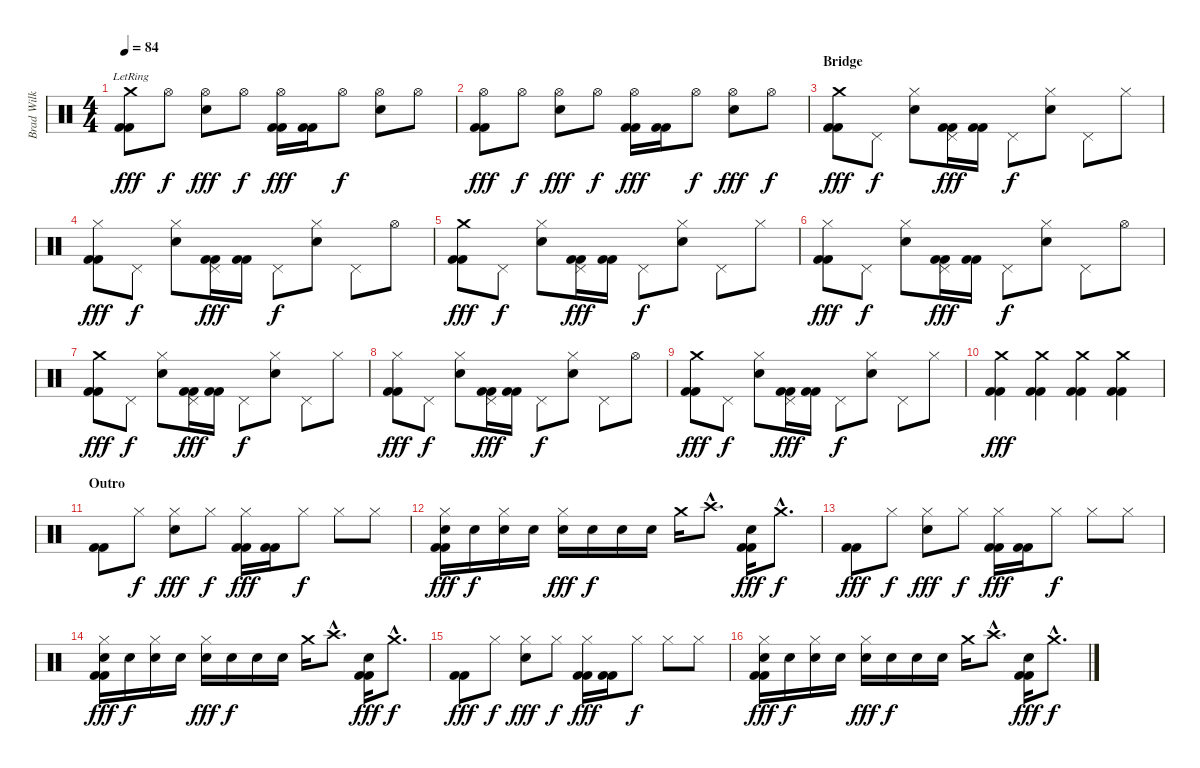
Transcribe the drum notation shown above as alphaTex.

\track ("Brad Wilk" "Brad Wilk") {instrument percussion}
\staff {score}
\articulation defaults
\ts (4 4)
\tempo 84
\clef neutral
\ks c
("Crash medium (hit)"{lr} "Kick (hit) 2" "Kick (hit) 2").8{dy fff} "Hi-Hat (open)".8{dy f} ("Hi-Hat (open)" "Snare (hit) 2").8{dy fff} "Hi-Hat (open)".8{dy f} ("Hi-Hat (open)" "Kick (hit) 2" "Kick (hit) 2").16{dy fff} ("Kick (hit) 2" "Kick (hit) 2").16 "Hi-Hat (open)".8{dy f} ("Hi-Hat (open)" "Snare (hit) 2").8 "Hi-Hat (open)".8 |
("Hi-Hat (open)" "Kick (hit) 2" "Kick (hit) 2").8{dy fff} "Hi-Hat (open)".8{dy f} ("Hi-Hat (open)" "Snare (hit) 2").8{dy fff} "Hi-Hat (open)".8{dy f} ("Hi-Hat (open)" "Kick (hit) 2" "Kick (hit) 2").16{dy fff} ("Kick (hit) 2" "Kick (hit) 2").16 "Hi-Hat (open)".8{dy f} ("Hi-Hat (open)" "Snare (hit) 2").8{dy fff} "Hi-Hat (open)".8{dy f} |
\section ("" "Bridge")
("Crash medium (hit)" "Kick (hit) 2" "Kick (hit) 2").8{dy fff} "Pedal Hi-Hat (hit)".8{dy f} ("Hi-Hat (closed)" "Snare (hit) 2").8 ("Pedal Hi-Hat (hit)" "Kick (hit) 2" "Kick (hit) 2").16{dy fff} ("Kick (hit) 2" "Kick (hit) 2").16 "Pedal Hi-Hat (hit)".8{dy f} ("Hi-Hat (closed)" "Snare (hit) 2").8 "Pedal Hi-Hat (hit)".8 "Hi-Hat (closed)".8 |
("Hi-Hat (closed)" "Kick (hit) 2" "Kick (hit) 2").8{dy fff} "Pedal Hi-Hat (hit)".8{dy f} ("Hi-Hat (closed)" "Snare (hit) 2").8 ("Pedal Hi-Hat (hit)" "Kick (hit) 2" "Kick (hit) 2").16{dy fff} ("Kick (hit) 2" "Kick (hit) 2").16 "Pedal Hi-Hat (hit)".8{dy f} ("Hi-Hat (closed)" "Snare (hit) 2").8 "Pedal Hi-Hat (hit)".8 "Hi-Hat (open)".8 |
("Crash medium (hit)" "Kick (hit) 2" "Kick (hit) 2").8{dy fff} "Pedal Hi-Hat (hit)".8{dy f} ("Hi-Hat (closed)" "Snare (hit) 2").8 ("Pedal Hi-Hat (hit)" "Kick (hit) 2" "Kick (hit) 2").16{dy fff} ("Kick (hit) 2" "Kick (hit) 2").16 "Pedal Hi-Hat (hit)".8{dy f} ("Hi-Hat (closed)" "Snare (hit) 2").8 "Pedal Hi-Hat (hit)".8 "Hi-Hat (closed)".8 |
("Hi-Hat (closed)" "Kick (hit) 2" "Kick (hit) 2").8{dy fff} "Pedal Hi-Hat (hit)".8{dy f} ("Hi-Hat (closed)" "Snare (hit) 2").8 ("Pedal Hi-Hat (hit)" "Kick (hit) 2" "Kick (hit) 2").16{dy fff} ("Kick (hit) 2" "Kick (hit) 2").16 "Pedal Hi-Hat (hit)".8{dy f} ("Hi-Hat (closed)" "Snare (hit) 2").8 "Pedal Hi-Hat (hit)".8 "Hi-Hat (open)".8 |
("Crash medium (hit)" "Kick (hit) 2" "Kick (hit) 2").8{dy fff} "Pedal Hi-Hat (hit)".8{dy f} ("Hi-Hat (closed)" "Snare (hit) 2").8 ("Pedal Hi-Hat (hit)" "Kick (hit) 2" "Kick (hit) 2").16{dy fff} ("Kick (hit) 2" "Kick (hit) 2").16 "Pedal Hi-Hat (hit)".8{dy f} ("Hi-Hat (closed)" "Snare (hit) 2").8 "Pedal Hi-Hat (hit)".8 "Hi-Hat (closed)".8 |
("Hi-Hat (closed)" "Kick (hit) 2" "Kick (hit) 2").8{dy fff} "Pedal Hi-Hat (hit)".8{dy f} ("Hi-Hat (closed)" "Snare (hit) 2").8 ("Pedal Hi-Hat (hit)" "Kick (hit) 2" "Kick (hit) 2").16{dy fff} ("Kick (hit) 2" "Kick (hit) 2").16 "Pedal Hi-Hat (hit)".8{dy f} ("Hi-Hat (closed)" "Snare (hit) 2").8 "Pedal Hi-Hat (hit)".8 "Hi-Hat (open)".8 |
("Crash medium (hit)" "Kick (hit) 2" "Kick (hit) 2").8{dy fff} "Pedal Hi-Hat (hit)".8{dy f} ("Hi-Hat (closed)" "Snare (hit) 2").8 ("Pedal Hi-Hat (hit)" "Kick (hit) 2" "Kick (hit) 2").16{dy fff} ("Kick (hit) 2" "Kick (hit) 2").16 "Pedal Hi-Hat (hit)".8{dy f} ("Hi-Hat (closed)" "Snare (hit) 2").8 "Pedal Hi-Hat (hit)".8 "Hi-Hat (closed)".8 |
("Crash medium (hit)" "Kick (hit) 2" "Kick (hit) 2").4{dy fff} ("Crash medium (hit)" "Kick (hit) 2" "Kick (hit) 2").4 ("Crash medium (hit)" "Kick (hit) 2" "Kick (hit) 2").4 ("Crash medium (hit)" "Kick (hit) 2" "Kick (hit) 2").4 |
\section ("" "Outro")
("Kick (hit) 2" "Kick (hit) 2").8 "Hi-Hat (closed)".8{dy f} ("Hi-Hat (closed)" "Snare (hit) 2").8{dy fff} "Hi-Hat (closed)".8{dy f} ("Hi-Hat (closed)" "Kick (hit) 2" "Kick (hit) 2").16{dy fff} ("Kick (hit) 2" "Kick (hit) 2").16 "Hi-Hat (closed)".8{dy f} "Hi-Hat (closed)".8 "Hi-Hat (closed)".8 |
("Hi-Hat (closed)" "Snare (hit) 2" "Kick (hit) 2" "Kick (hit) 2").16{dy fff} "Snare (hit) 2".16{dy f} ("Hi-Hat (closed)" "Snare (hit) 2").16 "Snare (hit) 2".16 ("Hi-Hat (closed)" "Snare (hit) 2").16{dy fff} "Snare (hit) 2".16{dy f} "Snare (hit) 2".16 "Snare (hit) 2".16 "Crash medium (hit)".16 "Crash high (hit)"{hac}.8{d} ("Electric Snare (hit)" "Kick (hit) 2" "Kick (hit) 2").16{dy fff} "Crash medium (hit)"{hac}.8{d dy f} |
("Kick (hit) 2" "Kick (hit) 2").8{dy fff} "Hi-Hat (closed)".8{dy f} ("Hi-Hat (closed)" "Snare (hit) 2").8{dy fff} "Hi-Hat (closed)".8{dy f} ("Hi-Hat (closed)" "Kick (hit) 2" "Kick (hit) 2").16{dy fff} ("Kick (hit) 2" "Kick (hit) 2").16 "Hi-Hat (closed)".8{dy f} "Hi-Hat (closed)".8 "Hi-Hat (closed)".8 |
("Hi-Hat (closed)" "Snare (hit) 2" "Kick (hit) 2" "Kick (hit) 2").16{dy fff} "Snare (hit) 2".16{dy f} ("Hi-Hat (closed)" "Snare (hit) 2").16 "Snare (hit) 2".16 ("Hi-Hat (closed)" "Snare (hit) 2").16{dy fff} "Snare (hit) 2".16{dy f} "Snare (hit) 2".16 "Snare (hit) 2".16 "Crash medium (hit)".16 "Crash high (hit)"{hac}.8{d} ("Electric Snare (hit)" "Kick (hit) 2" "Kick (hit) 2").16{dy fff} "Crash medium (hit)"{hac}.8{d dy f} |
("Kick (hit) 2" "Kick (hit) 2").8{dy fff} "Hi-Hat (closed)".8{dy f} ("Hi-Hat (closed)" "Snare (hit) 2").8{dy fff} "Hi-Hat (closed)".8{dy f} ("Hi-Hat (closed)" "Kick (hit) 2" "Kick (hit) 2").16{dy fff} ("Kick (hit) 2" "Kick (hit) 2").16 "Hi-Hat (closed)".8{dy f} "Hi-Hat (closed)".8 "Hi-Hat (closed)".8 |
("Hi-Hat (closed)" "Snare (hit) 2" "Kick (hit) 2" "Kick (hit) 2").16{dy fff} "Snare (hit) 2".16{dy f} ("Hi-Hat (closed)" "Snare (hit) 2").16 "Snare (hit) 2".16 ("Hi-Hat (closed)" "Snare (hit) 2").16{dy fff} "Snare (hit) 2".16{dy f} "Snare (hit) 2".16 "Snare (hit) 2".16 "Crash medium (hit)".16 "Crash high (hit)"{hac}.8{d} ("Electric Snare (hit)" "Kick (hit) 2" "Kick (hit) 2").16{dy fff} "Crash medium (hit)"{hac}.8{d dy f}
